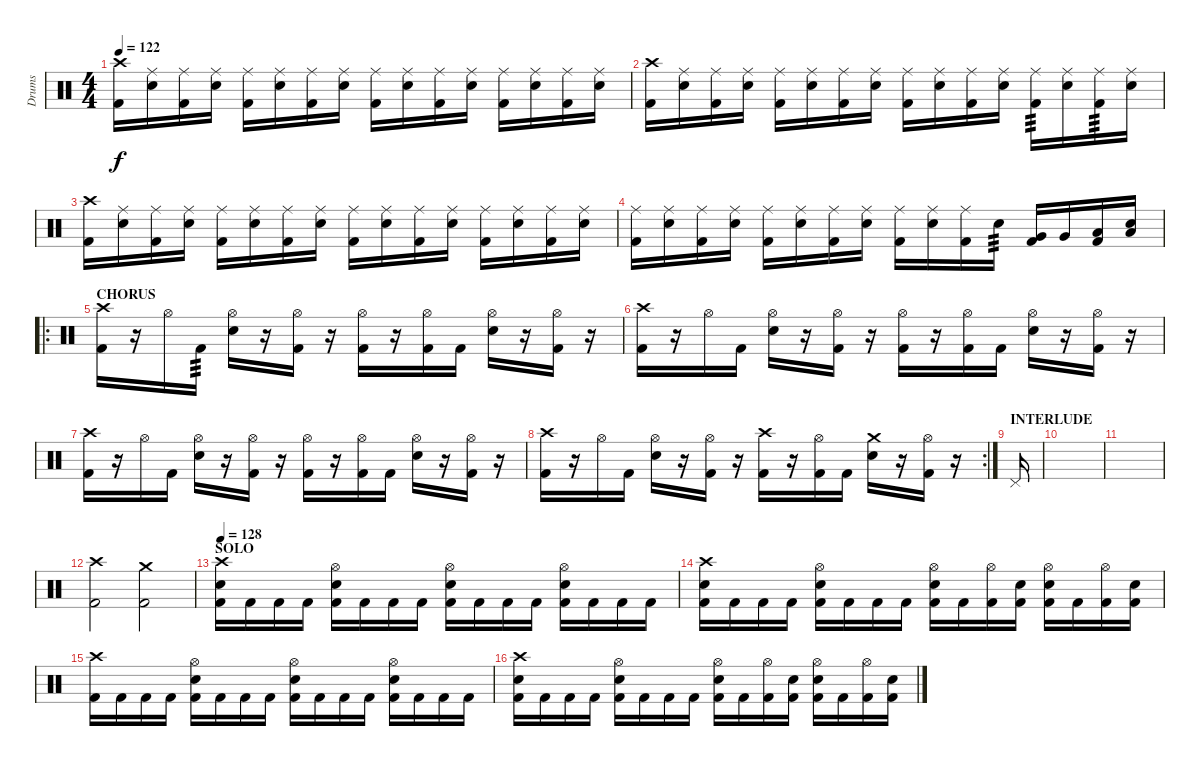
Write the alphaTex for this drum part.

\track ("Drums" "Drums") {instrument percussion}
\staff {score}
\articulation defaults
\ts (4 4)
\tempo 122
\clef neutral
\ks c
("Crash high (hit)" "Kick (hit) 2").16{dy f} ("Ride (middle)" "Electric Snare (hit)").16 ("Ride (middle)" "Kick (hit) 2").16 ("Ride (middle)" "Electric Snare (hit)").16 ("Ride (middle)" "Kick (hit) 2").16 ("Ride (middle)" "Electric Snare (hit)").16 ("Ride (middle)" "Kick (hit) 2").16 ("Ride (middle)" "Electric Snare (hit)").16 ("Ride (middle)" "Kick (hit) 2").16 ("Ride (middle)" "Electric Snare (hit)").16 ("Ride (middle)" "Kick (hit) 2").16 ("Ride (middle)" "Electric Snare (hit)").16 ("Ride (middle)" "Kick (hit) 2").16 ("Ride (middle)" "Electric Snare (hit)").16 ("Ride (middle)" "Kick (hit) 2").16 ("Ride (middle)" "Electric Snare (hit)").16 |
("Crash high (hit)" "Kick (hit) 2").16 ("Ride (middle)" "Electric Snare (hit)").16 ("Ride (middle)" "Kick (hit) 2").16 ("Ride (middle)" "Electric Snare (hit)").16 ("Ride (middle)" "Kick (hit) 2").16 ("Ride (middle)" "Electric Snare (hit)").16 ("Ride (middle)" "Kick (hit) 2").16 ("Ride (middle)" "Electric Snare (hit)").16 ("Ride (middle)" "Kick (hit) 2").16 ("Ride (middle)" "Electric Snare (hit)").16 ("Ride (middle)" "Kick (hit) 2").16 ("Ride (middle)" "Electric Snare (hit)").16 ("Ride (middle)" "Kick (hit) 2").16{tp 3} ("Ride (middle)" "Electric Snare (hit)").16 ("Ride (middle)" "Kick (hit) 2").16{tp 3} ("Ride (middle)" "Electric Snare (hit)").16 |
("Crash high (hit)" "Kick (hit) 2").16 ("Ride (middle)" "Electric Snare (hit)").16 ("Ride (middle)" "Kick (hit) 2").16 ("Ride (middle)" "Electric Snare (hit)").16 ("Ride (middle)" "Kick (hit) 2").16 ("Ride (middle)" "Electric Snare (hit)").16 ("Ride (middle)" "Kick (hit) 2").16 ("Ride (middle)" "Electric Snare (hit)").16 ("Ride (middle)" "Kick (hit) 2").16 ("Ride (middle)" "Electric Snare (hit)").16 ("Ride (middle)" "Kick (hit) 2").16 ("Ride (middle)" "Electric Snare (hit)").16 ("Ride (middle)" "Kick (hit) 2").16 ("Ride (middle)" "Electric Snare (hit)").16 ("Ride (middle)" "Kick (hit) 2").16 ("Ride (middle)" "Electric Snare (hit)").16 |
("Ride (middle)" "Kick (hit) 2").16 ("Ride (middle)" "Electric Snare (hit)").16 ("Ride (middle)" "Kick (hit) 2").16 ("Ride (middle)" "Electric Snare (hit)").16 ("Ride (middle)" "Kick (hit) 2").16 ("Ride (middle)" "Electric Snare (hit)").16 ("Ride (middle)" "Kick (hit) 2").16 ("Ride (middle)" "Electric Snare (hit)").16 ("Ride (middle)" "Kick (hit) 2").16 ("Ride (middle)" "Electric Snare (hit)").16 ("Ride (middle)" "Kick (hit) 2").16 "Electric Snare (hit)".16{tp 3} ("Very Low Tom (hit)" "Kick (hit) 2").16 "Very Low Tom (hit)".16 ("Low Floor Tom (hit)" "Kick (hit) 2").16 ("Low Floor Tom (hit)" "Electric Snare (hit)").16 |
\ro
\section ("" "CHORUS")
("Crash high (hit)" "Kick (hit) 2").16 r.16 "Hi-Hat (open)".16 "Kick (hit) 2".16{tp 3} ("Hi-Hat (open)" "Electric Snare (hit)").16 r.16 ("Hi-Hat (open)" "Kick (hit) 2").16 r.16 ("Hi-Hat (open)" "Kick (hit) 2").16 r.16 ("Hi-Hat (open)" "Kick (hit) 2").16 "Kick (hit) 2".16 ("Hi-Hat (open)" "Electric Snare (hit)").16 r.16 ("Hi-Hat (open)" "Kick (hit) 2").16 r.16 |
("Crash high (hit)" "Kick (hit) 2").16 r.16 "Hi-Hat (open)".16 "Kick (hit) 2".16 ("Hi-Hat (open)" "Electric Snare (hit)").16 r.16 ("Hi-Hat (open)" "Kick (hit) 2").16 r.16 ("Hi-Hat (open)" "Kick (hit) 2").16 r.16 ("Hi-Hat (open)" "Kick (hit) 2").16 "Kick (hit) 2".16 ("Hi-Hat (open)" "Electric Snare (hit)").16 r.16 ("Hi-Hat (open)" "Kick (hit) 2").16 r.16 |
("Crash high (hit)" "Kick (hit) 2").16 r.16 "Hi-Hat (open)".16 "Kick (hit) 2".16 ("Hi-Hat (open)" "Electric Snare (hit)").16 r.16 ("Hi-Hat (open)" "Kick (hit) 2").16 r.16 ("Hi-Hat (open)" "Kick (hit) 2").16 r.16 ("Hi-Hat (open)" "Kick (hit) 2").16 "Kick (hit) 2".16 ("Hi-Hat (open)" "Electric Snare (hit)").16 r.16 ("Hi-Hat (open)" "Kick (hit) 2").16 r.16 |
\rc 2
("Crash high (hit)" "Kick (hit) 2").16 r.16 "Hi-Hat (open)".16 "Kick (hit) 2".16 ("Hi-Hat (open)" "Electric Snare (hit)").16 r.16 ("Hi-Hat (open)" "Kick (hit) 2").16 r.16 ("Crash high (hit)" "Kick (hit) 2").16 r.16 ("Hi-Hat (open)" "Kick (hit) 2").16 "Kick (hit) 2".16 ("Crash medium (hit)" "Electric Snare (hit)").16 r.16 ("Hi-Hat (open)" "Kick (hit) 2").16 r.16 |
\section ("" "INTERLUDE")
"Pedal Hi-Hat (hit)".16 |
|
|
("Crash high (hit)" "Kick (hit) 2").2 ("Crash medium (hit)" "Kick (hit) 2").2 |
\section ("" "SOLO")
\tempo 128
("Crash high (hit)" "Electric Snare (hit)" "Kick (hit) 2").16 "Kick (hit) 2".16 "Kick (hit) 2".16 "Kick (hit) 2".16 ("Hi-Hat (open)" "Electric Snare (hit)" "Kick (hit) 2").16 "Kick (hit) 2".16 "Kick (hit) 2".16 "Kick (hit) 2".16 ("Hi-Hat (open)" "Electric Snare (hit)" "Kick (hit) 2").16 "Kick (hit) 2".16 "Kick (hit) 2".16 "Kick (hit) 2".16 ("Hi-Hat (open)" "Electric Snare (hit)" "Kick (hit) 2").16 "Kick (hit) 2".16 "Kick (hit) 2".16 "Kick (hit) 2".16 |
("Crash high (hit)" "Electric Snare (hit)" "Kick (hit) 2").16 "Kick (hit) 2".16 "Kick (hit) 2".16 "Kick (hit) 2".16 ("Hi-Hat (open)" "Electric Snare (hit)" "Kick (hit) 2").16 "Kick (hit) 2".16 "Kick (hit) 2".16 "Kick (hit) 2".16 ("Hi-Hat (open)" "Electric Snare (hit)" "Kick (hit) 2").16 "Kick (hit) 2".16 ("Hi-Hat (open)" "Kick (hit) 2").16 ("Electric Snare (hit)" "Kick (hit) 2").16 ("Hi-Hat (open)" "Electric Snare (hit)" "Kick (hit) 2").16 "Kick (hit) 2".16 ("Hi-Hat (open)" "Kick (hit) 2").16 ("Electric Snare (hit)" "Kick (hit) 2").16 |
("Crash high (hit)" "Kick (hit) 2").16 "Kick (hit) 2".16 "Kick (hit) 2".16 "Kick (hit) 2".16 ("Hi-Hat (open)" "Electric Snare (hit)" "Kick (hit) 2").16 "Kick (hit) 2".16 "Kick (hit) 2".16 "Kick (hit) 2".16 ("Hi-Hat (open)" "Electric Snare (hit)" "Kick (hit) 2").16 "Kick (hit) 2".16 "Kick (hit) 2".16 "Kick (hit) 2".16 ("Hi-Hat (open)" "Electric Snare (hit)" "Kick (hit) 2").16 "Kick (hit) 2".16 "Kick (hit) 2".16 "Kick (hit) 2".16 |
("Crash high (hit)" "Electric Snare (hit)" "Kick (hit) 2").16 "Kick (hit) 2".16 "Kick (hit) 2".16 "Kick (hit) 2".16 ("Hi-Hat (open)" "Electric Snare (hit)" "Kick (hit) 2").16 "Kick (hit) 2".16 "Kick (hit) 2".16 "Kick (hit) 2".16 ("Hi-Hat (open)" "Electric Snare (hit)" "Kick (hit) 2").16 "Kick (hit) 2".16 ("Hi-Hat (open)" "Kick (hit) 2").16 ("Electric Snare (hit)" "Kick (hit) 2").16 ("Hi-Hat (open)" "Electric Snare (hit)" "Kick (hit) 2").16 "Kick (hit) 2".16 ("Hi-Hat (open)" "Kick (hit) 2").16 ("Electric Snare (hit)" "Kick (hit) 2").16
